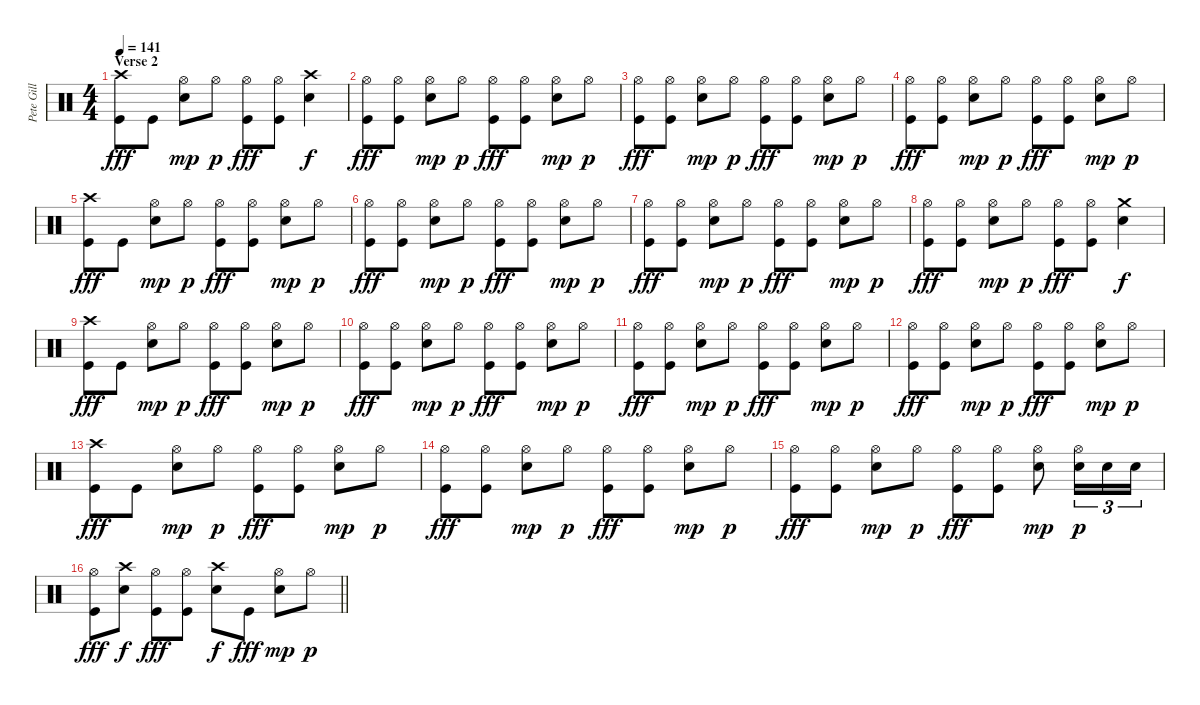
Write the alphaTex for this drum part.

\track ("Pete Gill" "Pete Gill") {instrument percussion}
\staff {score}
\articulation defaults
\ts (4 4)
\section ("" "Verse 2")
\tempo 141
\clef neutral
\ks c
("Crash high (hit)" "Kick (hit)").8{dy fff} "Kick (hit)".8 ("Hi-Hat (open)" "Electric Snare (hit)").8{dy mp} "Hi-Hat (open)".8{dy p} ("Hi-Hat (open)" "Kick (hit)").8{dy fff} ("Hi-Hat (open)" "Kick (hit)").8 ("Crash high (hit)" "Electric Snare (hit)").4{dy f} |
("Hi-Hat (open)" "Kick (hit)").8{dy fff} ("Hi-Hat (open)" "Kick (hit)").8 ("Hi-Hat (open)" "Electric Snare (hit)").8{dy mp} "Hi-Hat (open)".8{dy p} ("Hi-Hat (open)" "Kick (hit)").8{dy fff} ("Hi-Hat (open)" "Kick (hit)").8 ("Hi-Hat (open)" "Electric Snare (hit)").8{dy mp} "Hi-Hat (open)".8{dy p} |
("Hi-Hat (open)" "Kick (hit)").8{dy fff} ("Hi-Hat (open)" "Kick (hit)").8 ("Hi-Hat (open)" "Electric Snare (hit)").8{dy mp} "Hi-Hat (open)".8{dy p} ("Hi-Hat (open)" "Kick (hit)").8{dy fff} ("Hi-Hat (open)" "Kick (hit)").8 ("Hi-Hat (open)" "Electric Snare (hit)").8{dy mp} "Hi-Hat (open)".8{dy p} |
("Hi-Hat (open)" "Kick (hit)").8{dy fff} ("Hi-Hat (open)" "Kick (hit)").8 ("Hi-Hat (open)" "Electric Snare (hit)").8{dy mp} "Hi-Hat (open)".8{dy p} ("Hi-Hat (open)" "Kick (hit)").8{dy fff} ("Hi-Hat (open)" "Kick (hit)").8 ("Hi-Hat (open)" "Electric Snare (hit)").8{dy mp} "Hi-Hat (open)".8{dy p} |
("Crash high (hit)" "Kick (hit)").8{dy fff} "Kick (hit)".8 ("Hi-Hat (open)" "Electric Snare (hit)").8{dy mp} "Hi-Hat (open)".8{dy p} ("Hi-Hat (open)" "Kick (hit)").8{dy fff} ("Hi-Hat (open)" "Kick (hit)").8 ("Hi-Hat (open)" "Electric Snare (hit)").8{dy mp} "Hi-Hat (open)".8{dy p} |
("Hi-Hat (open)" "Kick (hit)").8{dy fff} ("Hi-Hat (open)" "Kick (hit)").8 ("Hi-Hat (open)" "Electric Snare (hit)").8{dy mp} "Hi-Hat (open)".8{dy p} ("Hi-Hat (open)" "Kick (hit)").8{dy fff} ("Hi-Hat (open)" "Kick (hit)").8 ("Hi-Hat (open)" "Electric Snare (hit)").8{dy mp} "Hi-Hat (open)".8{dy p} |
("Hi-Hat (open)" "Kick (hit)").8{dy fff} ("Hi-Hat (open)" "Kick (hit)").8 ("Hi-Hat (open)" "Electric Snare (hit)").8{dy mp} "Hi-Hat (open)".8{dy p} ("Hi-Hat (open)" "Kick (hit)").8{dy fff} ("Hi-Hat (open)" "Kick (hit)").8 ("Hi-Hat (open)" "Electric Snare (hit)").8{dy mp} "Hi-Hat (open)".8{dy p} |
("Hi-Hat (open)" "Kick (hit)").8{dy fff} ("Hi-Hat (open)" "Kick (hit)").8 ("Hi-Hat (open)" "Electric Snare (hit)").8{dy mp} "Hi-Hat (open)".8{dy p} ("Hi-Hat (open)" "Kick (hit)").8{dy fff} ("Hi-Hat (open)" "Kick (hit)").8 ("Crash medium (hit)" "Electric Snare (hit)").4{dy f} |
("Crash high (hit)" "Kick (hit)").8{dy fff} "Kick (hit)".8 ("Hi-Hat (open)" "Electric Snare (hit)").8{dy mp} "Hi-Hat (open)".8{dy p} ("Hi-Hat (open)" "Kick (hit)").8{dy fff} ("Hi-Hat (open)" "Kick (hit)").8 ("Hi-Hat (open)" "Electric Snare (hit)").8{dy mp} "Hi-Hat (open)".8{dy p} |
("Hi-Hat (open)" "Kick (hit)").8{dy fff} ("Hi-Hat (open)" "Kick (hit)").8 ("Hi-Hat (open)" "Electric Snare (hit)").8{dy mp} "Hi-Hat (open)".8{dy p} ("Hi-Hat (open)" "Kick (hit)").8{dy fff} ("Hi-Hat (open)" "Kick (hit)").8 ("Hi-Hat (open)" "Electric Snare (hit)").8{dy mp} "Hi-Hat (open)".8{dy p} |
("Hi-Hat (open)" "Kick (hit)").8{dy fff} ("Hi-Hat (open)" "Kick (hit)").8 ("Hi-Hat (open)" "Electric Snare (hit)").8{dy mp} "Hi-Hat (open)".8{dy p} ("Hi-Hat (open)" "Kick (hit)").8{dy fff} ("Hi-Hat (open)" "Kick (hit)").8 ("Hi-Hat (open)" "Electric Snare (hit)").8{dy mp} "Hi-Hat (open)".8{dy p} |
("Hi-Hat (open)" "Kick (hit)").8{dy fff} ("Hi-Hat (open)" "Kick (hit)").8 ("Hi-Hat (open)" "Electric Snare (hit)").8{dy mp} "Hi-Hat (open)".8{dy p} ("Hi-Hat (open)" "Kick (hit)").8{dy fff} ("Hi-Hat (open)" "Kick (hit)").8 ("Hi-Hat (open)" "Electric Snare (hit)").8{dy mp} "Hi-Hat (open)".8{dy p} |
("Crash high (hit)" "Kick (hit)").8{dy fff} "Kick (hit)".8 ("Hi-Hat (open)" "Electric Snare (hit)").8{dy mp} "Hi-Hat (open)".8{dy p} ("Hi-Hat (open)" "Kick (hit)").8{dy fff} ("Hi-Hat (open)" "Kick (hit)").8 ("Hi-Hat (open)" "Electric Snare (hit)").8{dy mp} "Hi-Hat (open)".8{dy p} |
("Hi-Hat (open)" "Kick (hit)").8{dy fff} ("Hi-Hat (open)" "Kick (hit)").8 ("Hi-Hat (open)" "Electric Snare (hit)").8{dy mp} "Hi-Hat (open)".8{dy p} ("Hi-Hat (open)" "Kick (hit)").8{dy fff} ("Hi-Hat (open)" "Kick (hit)").8 ("Hi-Hat (open)" "Electric Snare (hit)").8{dy mp} "Hi-Hat (open)".8{dy p} |
("Hi-Hat (open)" "Kick (hit)").8{dy fff} ("Hi-Hat (open)" "Kick (hit)").8 ("Hi-Hat (open)" "Electric Snare (hit)").8{dy mp} "Hi-Hat (open)".8{dy p} ("Hi-Hat (open)" "Kick (hit)").8{dy fff} ("Hi-Hat (open)" "Kick (hit)").8 ("Hi-Hat (open)" "Electric Snare (hit)").8{dy mp} ("Hi-Hat (open)" "Electric Snare (hit)").16{tu (3 2) dy p} "Electric Snare (hit)".16{tu (3 2)} "Electric Snare (hit)".16{tu (3 2)} |
\barLineRight lightlight
("Hi-Hat (open)" "Kick (hit)").8{dy fff} ("Crash high (hit)" "Electric Snare (hit)").8{dy f} ("Hi-Hat (open)" "Kick (hit)").8{dy fff} ("Hi-Hat (open)" "Kick (hit)").8 ("Crash high (hit)" "Electric Snare (hit)").8{dy f} "Kick (hit)".8{dy fff} ("Hi-Hat (open)" "Electric Snare (hit)").8{dy mp} "Hi-Hat (open)".8{dy p}
